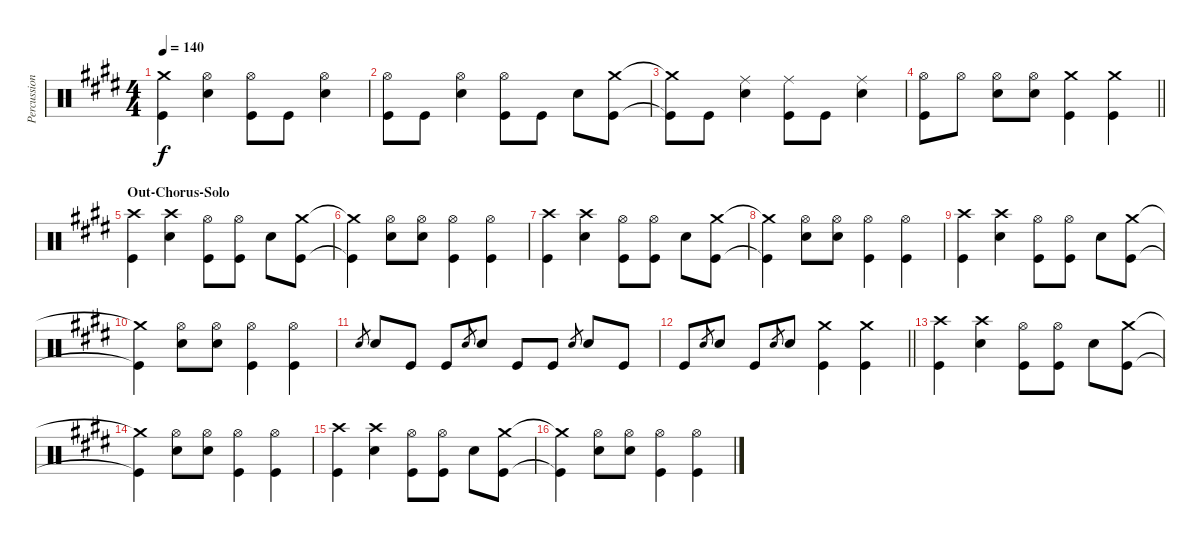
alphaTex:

\track ("Percussion" "Percussion") {instrument percussion}
\staff {score}
\articulation defaults
\ts (4 4)
\tempo 140
\clef neutral
\ks e
("Crash medium (hit)" "Kick (hit)").4{dy f} ("Hi-Hat (open)" "Snare (hit) 2").4 ("Hi-Hat (open)" "Kick (hit)").8 "Kick (hit)".8 ("Hi-Hat (open)" "Snare (hit) 2").4 |
("Hi-Hat (open)" "Kick (hit)").8 "Kick (hit)".8 ("Hi-Hat (open)" "Snare (hit) 2").4 ("Hi-Hat (open)" "Kick (hit)").8 "Kick (hit)".8 "Snare (hit) 2".8 ("Crash medium (hit)" "Kick (hit)").8 |
("Crash medium (hit)"{t} "Kick (hit)"{t}).8 "Kick (hit)".8 ("Ride (middle)" "Snare (hit) 2").4 ("Ride (middle)" "Kick (hit)").8 "Kick (hit)".8 ("Ride (middle)" "Snare (hit) 2").4 |
\barLineRight lightlight
("Hi-Hat (open)" "Kick (hit)").8 "Hi-Hat (open)".8 ("Hi-Hat (open)" "Snare (hit) 2").8 ("Hi-Hat (open)" "Snare (hit) 2").8 ("Crash medium (hit)" "Kick (hit)").4 ("Crash medium (hit)" "Kick (hit)").4 |
\section ("" "Out-Chorus-Solo")
("Crash high (hit)" "Kick (hit)").4 ("Crash high (hit)" "Snare (hit) 2").4 ("Hi-Hat (open)" "Kick (hit)").8 ("Hi-Hat (open)" "Kick (hit)").8 "Snare (hit) 2".8 ("Crash medium (hit)" "Kick (hit)").8 |
("Crash medium (hit)"{t} "Kick (hit)"{t}).4 ("Hi-Hat (open)" "Snare (hit) 2").8 ("Hi-Hat (open)" "Snare (hit) 2").8 ("Hi-Hat (open)" "Kick (hit)").4 ("Hi-Hat (open)" "Kick (hit)").4 |
("Crash high (hit)" "Kick (hit)").4 ("Crash high (hit)" "Snare (hit) 2").4 ("Hi-Hat (open)" "Kick (hit)").8 ("Hi-Hat (open)" "Kick (hit)").8 "Snare (hit) 2".8 ("Crash medium (hit)" "Kick (hit)").8 |
("Crash medium (hit)"{t} "Kick (hit)"{t}).4 ("Hi-Hat (open)" "Snare (hit) 2").8 ("Hi-Hat (open)" "Snare (hit) 2").8 ("Hi-Hat (open)" "Kick (hit)").4 ("Hi-Hat (open)" "Kick (hit)").4 |
("Crash high (hit)" "Kick (hit)").4 ("Crash high (hit)" "Snare (hit) 2").4 ("Hi-Hat (open)" "Kick (hit)").8 ("Hi-Hat (open)" "Kick (hit)").8 "Snare (hit) 2".8 ("Crash medium (hit)" "Kick (hit)").8 |
("Crash medium (hit)"{t} "Kick (hit)"{t}).4 ("Hi-Hat (open)" "Snare (hit) 2").8 ("Hi-Hat (open)" "Snare (hit) 2").8 ("Hi-Hat (open)" "Kick (hit)").4 ("Hi-Hat (open)" "Kick (hit)").4 |
"Snare (hit) 2".8{gr} "Snare (hit) 2".8 "Kick (hit)".8 "Kick (hit)".8 "Snare (hit) 2".8{gr} "Snare (hit) 2".8 "Kick (hit)".8 "Kick (hit)".8 "Snare (hit) 2".8{gr} "Snare (hit) 2".8 "Kick (hit)".8 |
\barLineRight lightlight "Kick (hit)".8 "Snare (hit) 2".8{gr} "Snare (hit) 2".8 "Kick (hit)".8 "Snare (hit) 2".8{gr} "Snare (hit) 2".8
("Crash medium (hit)" "Kick (hit)").4 ("Crash medium (hit)" "Kick (hit)").4 |
("Crash high (hit)" "Kick (hit)").4 ("Crash high (hit)" "Snare (hit) 2").4 ("Hi-Hat (open)" "Kick (hit)").8 ("Hi-Hat (open)" "Kick (hit)").8 "Snare (hit) 2".8 ("Crash medium (hit)" "Kick (hit)").8 |
("Crash medium (hit)"{t} "Kick (hit)"{t}).4 ("Hi-Hat (open)" "Snare (hit) 2").8 ("Hi-Hat (open)" "Snare (hit) 2").8 ("Hi-Hat (open)" "Kick (hit)").4 ("Hi-Hat (open)" "Kick (hit)").4 |
("Crash high (hit)" "Kick (hit)").4 ("Crash high (hit)" "Snare (hit) 2").4 ("Hi-Hat (open)" "Kick (hit)").8 ("Hi-Hat (open)" "Kick (hit)").8 "Snare (hit) 2".8 ("Crash medium (hit)" "Kick (hit)").8 |
("Crash medium (hit)"{t} "Kick (hit)"{t}).4 ("Hi-Hat (open)" "Snare (hit) 2").8 ("Hi-Hat (open)" "Snare (hit) 2").8 ("Hi-Hat (open)" "Kick (hit)").4 ("Hi-Hat (open)" "Kick (hit)").4
